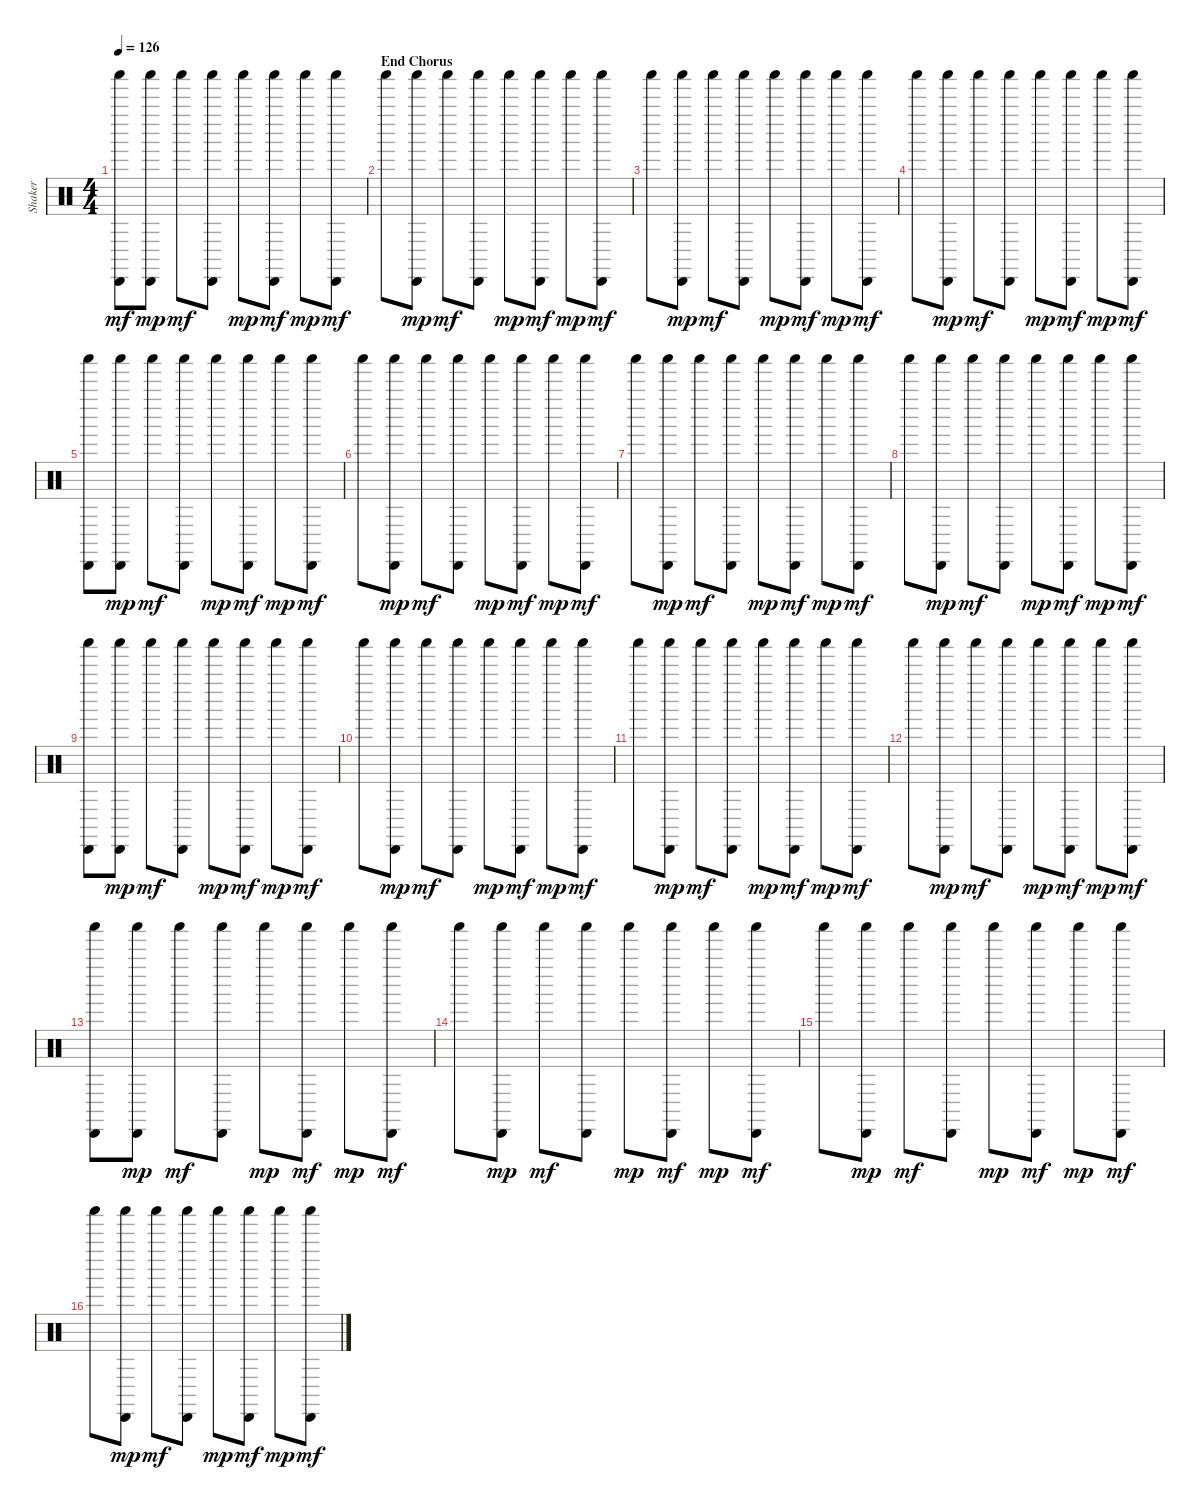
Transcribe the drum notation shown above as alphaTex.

\track ("Shaker" "Shaker") {instrument percussion}
\staff {score}
\articulation defaults
\ts (4 4)
\tempo 126
\clef neutral
\ks c
("Cabasa (hit)" "Shaker (hit)").8{dy mf} ("Cabasa (hit)" "Shaker (hit)").8{dy mp} "Shaker (hit)".8{dy mf} ("Cabasa (hit)" "Shaker (hit)").8 "Shaker (hit)".8{dy mp} ("Cabasa (hit)" "Shaker (hit)").8{dy mf} "Shaker (hit)".8{dy mp} ("Cabasa (hit)" "Shaker (hit)").8{dy mf} |
\section ("" "End Chorus")
"Shaker (hit)".8 ("Cabasa (hit)" "Shaker (hit)").8{dy mp} "Shaker (hit)".8{dy mf} ("Cabasa (hit)" "Shaker (hit)").8 "Shaker (hit)".8{dy mp} ("Cabasa (hit)" "Shaker (hit)").8{dy mf} "Shaker (hit)".8{dy mp} ("Cabasa (hit)" "Shaker (hit)").8{dy mf} |
"Shaker (hit)".8 ("Cabasa (hit)" "Shaker (hit)").8{dy mp} "Shaker (hit)".8{dy mf} ("Cabasa (hit)" "Shaker (hit)").8 "Shaker (hit)".8{dy mp} ("Cabasa (hit)" "Shaker (hit)").8{dy mf} "Shaker (hit)".8{dy mp} ("Cabasa (hit)" "Shaker (hit)").8{dy mf} |
"Shaker (hit)".8 ("Cabasa (hit)" "Shaker (hit)").8{dy mp} "Shaker (hit)".8{dy mf} ("Cabasa (hit)" "Shaker (hit)").8 "Shaker (hit)".8{dy mp} ("Cabasa (hit)" "Shaker (hit)").8{dy mf} "Shaker (hit)".8{dy mp} ("Cabasa (hit)" "Shaker (hit)").8{dy mf} |
("Cabasa (hit)" "Shaker (hit)").8 ("Cabasa (hit)" "Shaker (hit)").8{dy mp} "Shaker (hit)".8{dy mf} ("Cabasa (hit)" "Shaker (hit)").8 "Shaker (hit)".8{dy mp} ("Cabasa (hit)" "Shaker (hit)").8{dy mf} "Shaker (hit)".8{dy mp} ("Cabasa (hit)" "Shaker (hit)").8{dy mf} |
"Shaker (hit)".8 ("Cabasa (hit)" "Shaker (hit)").8{dy mp} "Shaker (hit)".8{dy mf} ("Cabasa (hit)" "Shaker (hit)").8 "Shaker (hit)".8{dy mp} ("Cabasa (hit)" "Shaker (hit)").8{dy mf} "Shaker (hit)".8{dy mp} ("Cabasa (hit)" "Shaker (hit)").8{dy mf} |
"Shaker (hit)".8 ("Cabasa (hit)" "Shaker (hit)").8{dy mp} "Shaker (hit)".8{dy mf} ("Cabasa (hit)" "Shaker (hit)").8 "Shaker (hit)".8{dy mp} ("Cabasa (hit)" "Shaker (hit)").8{dy mf} "Shaker (hit)".8{dy mp} ("Cabasa (hit)" "Shaker (hit)").8{dy mf} |
"Shaker (hit)".8 ("Cabasa (hit)" "Shaker (hit)").8{dy mp} "Shaker (hit)".8{dy mf} ("Cabasa (hit)" "Shaker (hit)").8 "Shaker (hit)".8{dy mp} ("Cabasa (hit)" "Shaker (hit)").8{dy mf} "Shaker (hit)".8{dy mp} ("Cabasa (hit)" "Shaker (hit)").8{dy mf} |
("Cabasa (hit)" "Shaker (hit)").8 ("Cabasa (hit)" "Shaker (hit)").8{dy mp} "Shaker (hit)".8{dy mf} ("Cabasa (hit)" "Shaker (hit)").8 "Shaker (hit)".8{dy mp} ("Cabasa (hit)" "Shaker (hit)").8{dy mf} "Shaker (hit)".8{dy mp} ("Cabasa (hit)" "Shaker (hit)").8{dy mf} |
"Shaker (hit)".8 ("Cabasa (hit)" "Shaker (hit)").8{dy mp} "Shaker (hit)".8{dy mf} ("Cabasa (hit)" "Shaker (hit)").8 "Shaker (hit)".8{dy mp} ("Cabasa (hit)" "Shaker (hit)").8{dy mf} "Shaker (hit)".8{dy mp} ("Cabasa (hit)" "Shaker (hit)").8{dy mf} |
"Shaker (hit)".8 ("Cabasa (hit)" "Shaker (hit)").8{dy mp} "Shaker (hit)".8{dy mf} ("Cabasa (hit)" "Shaker (hit)").8 "Shaker (hit)".8{dy mp} ("Cabasa (hit)" "Shaker (hit)").8{dy mf} "Shaker (hit)".8{dy mp} ("Cabasa (hit)" "Shaker (hit)").8{dy mf} |
"Shaker (hit)".8 ("Cabasa (hit)" "Shaker (hit)").8{dy mp} "Shaker (hit)".8{dy mf} ("Cabasa (hit)" "Shaker (hit)").8 "Shaker (hit)".8{dy mp} ("Cabasa (hit)" "Shaker (hit)").8{dy mf} "Shaker (hit)".8{dy mp} ("Cabasa (hit)" "Shaker (hit)").8{dy mf} |
("Cabasa (hit)" "Shaker (hit)").8 ("Cabasa (hit)" "Shaker (hit)").8{dy mp} "Shaker (hit)".8{dy mf} ("Cabasa (hit)" "Shaker (hit)").8 "Shaker (hit)".8{dy mp} ("Cabasa (hit)" "Shaker (hit)").8{dy mf} "Shaker (hit)".8{dy mp} ("Cabasa (hit)" "Shaker (hit)").8{dy mf} |
"Shaker (hit)".8 ("Cabasa (hit)" "Shaker (hit)").8{dy mp} "Shaker (hit)".8{dy mf} ("Cabasa (hit)" "Shaker (hit)").8 "Shaker (hit)".8{dy mp} ("Cabasa (hit)" "Shaker (hit)").8{dy mf} "Shaker (hit)".8{dy mp} ("Cabasa (hit)" "Shaker (hit)").8{dy mf} |
"Shaker (hit)".8 ("Cabasa (hit)" "Shaker (hit)").8{dy mp} "Shaker (hit)".8{dy mf} ("Cabasa (hit)" "Shaker (hit)").8 "Shaker (hit)".8{dy mp} ("Cabasa (hit)" "Shaker (hit)").8{dy mf} "Shaker (hit)".8{dy mp} ("Cabasa (hit)" "Shaker (hit)").8{dy mf} |
"Shaker (hit)".8 ("Cabasa (hit)" "Shaker (hit)").8{dy mp} "Shaker (hit)".8{dy mf} ("Cabasa (hit)" "Shaker (hit)").8 "Shaker (hit)".8{dy mp} ("Cabasa (hit)" "Shaker (hit)").8{dy mf} "Shaker (hit)".8{dy mp} ("Cabasa (hit)" "Shaker (hit)").8{dy mf}
